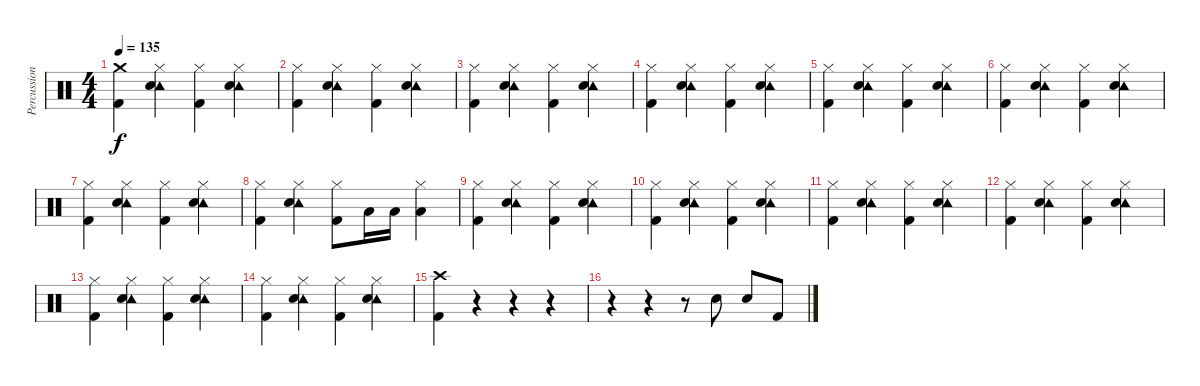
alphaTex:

\track ("Percussion" "Percussion") {instrument percussion}
\staff {score}
\articulation defaults
\ts (4 4)
\section ("" "")
\tempo 135
\clef neutral
\ks c
("Crash medium (hit)" "Kick (hit) 2").4{dy f} ("Hi-Hat (closed)" "Tambourine (hit)" "Electric Snare (hit)").4 ("Hi-Hat (closed)" "Kick (hit) 2").4 ("Hi-Hat (closed)" "Tambourine (hit)" "Electric Snare (hit)").4 |
("Hi-Hat (closed)" "Kick (hit) 2").4 ("Hi-Hat (closed)" "Tambourine (hit)" "Electric Snare (hit)").4 ("Hi-Hat (closed)" "Kick (hit) 2").4 ("Hi-Hat (closed)" "Tambourine (hit)" "Electric Snare (hit)").4 |
("Hi-Hat (closed)" "Kick (hit) 2").4 ("Hi-Hat (closed)" "Tambourine (hit)" "Electric Snare (hit)").4 ("Hi-Hat (closed)" "Kick (hit) 2").4 ("Hi-Hat (closed)" "Tambourine (hit)" "Electric Snare (hit)").4 |
("Hi-Hat (closed)" "Kick (hit) 2").4 ("Hi-Hat (closed)" "Tambourine (hit)" "Electric Snare (hit)").4 ("Hi-Hat (closed)" "Kick (hit) 2").4 ("Hi-Hat (closed)" "Tambourine (hit)" "Electric Snare (hit)").4 |
("Hi-Hat (closed)" "Kick (hit) 2").4 ("Hi-Hat (closed)" "Tambourine (hit)" "Electric Snare (hit)").4 ("Hi-Hat (closed)" "Kick (hit) 2").4 ("Hi-Hat (closed)" "Tambourine (hit)" "Electric Snare (hit)").4 |
("Hi-Hat (closed)" "Kick (hit) 2").4 ("Hi-Hat (closed)" "Tambourine (hit)" "Electric Snare (hit)").4 ("Hi-Hat (closed)" "Kick (hit) 2").4 ("Hi-Hat (closed)" "Tambourine (hit)" "Electric Snare (hit)").4 |
("Hi-Hat (closed)" "Kick (hit) 2").4 ("Hi-Hat (closed)" "Tambourine (hit)" "Electric Snare (hit)").4 ("Hi-Hat (closed)" "Kick (hit) 2").4 ("Hi-Hat (closed)" "Tambourine (hit)" "Electric Snare (hit)").4 |
("Hi-Hat (closed)" "Kick (hit) 2").4 ("Hi-Hat (closed)" "Tambourine (hit)" "Electric Snare (hit)").4 ("Hi-Hat (closed)" "Kick (hit) 2").8 "Low Tom (hit)".16 "Low Tom (hit)".16 ("Hi-Hat (closed)" "Low Floor Tom (hit)").4 |
("Hi-Hat (closed)" "Kick (hit) 2").4 ("Hi-Hat (closed)" "Tambourine (hit)" "Electric Snare (hit)").4 ("Hi-Hat (closed)" "Kick (hit) 2").4 ("Hi-Hat (closed)" "Tambourine (hit)" "Electric Snare (hit)").4 |
("Hi-Hat (closed)" "Kick (hit) 2").4 ("Hi-Hat (closed)" "Tambourine (hit)" "Electric Snare (hit)").4 ("Hi-Hat (closed)" "Kick (hit) 2").4 ("Hi-Hat (closed)" "Tambourine (hit)" "Electric Snare (hit)").4 |
("Hi-Hat (closed)" "Kick (hit) 2").4 ("Hi-Hat (closed)" "Tambourine (hit)" "Electric Snare (hit)").4 ("Hi-Hat (closed)" "Kick (hit) 2").4 ("Hi-Hat (closed)" "Tambourine (hit)" "Electric Snare (hit)").4 |
("Hi-Hat (closed)" "Kick (hit) 2").4 ("Hi-Hat (closed)" "Tambourine (hit)" "Electric Snare (hit)").4 ("Hi-Hat (closed)" "Kick (hit) 2").4 ("Hi-Hat (closed)" "Tambourine (hit)" "Electric Snare (hit)").4 |
("Hi-Hat (closed)" "Kick (hit) 2").4 ("Hi-Hat (closed)" "Tambourine (hit)" "Electric Snare (hit)").4 ("Hi-Hat (closed)" "Kick (hit) 2").4 ("Hi-Hat (closed)" "Tambourine (hit)" "Electric Snare (hit)").4 |
("Hi-Hat (closed)" "Kick (hit) 2").4 ("Hi-Hat (closed)" "Tambourine (hit)" "Electric Snare (hit)").4 ("Hi-Hat (closed)" "Kick (hit) 2").4 ("Hi-Hat (closed)" "Tambourine (hit)" "Electric Snare (hit)").4 |
("Crash high (hit)" "Kick (hit) 2").4 r.4 r.4 r.4 |
r.4 r.4 r.8 "Electric Snare (hit)".8 "Electric Snare (hit)".8 "Kick (hit) 2".8
